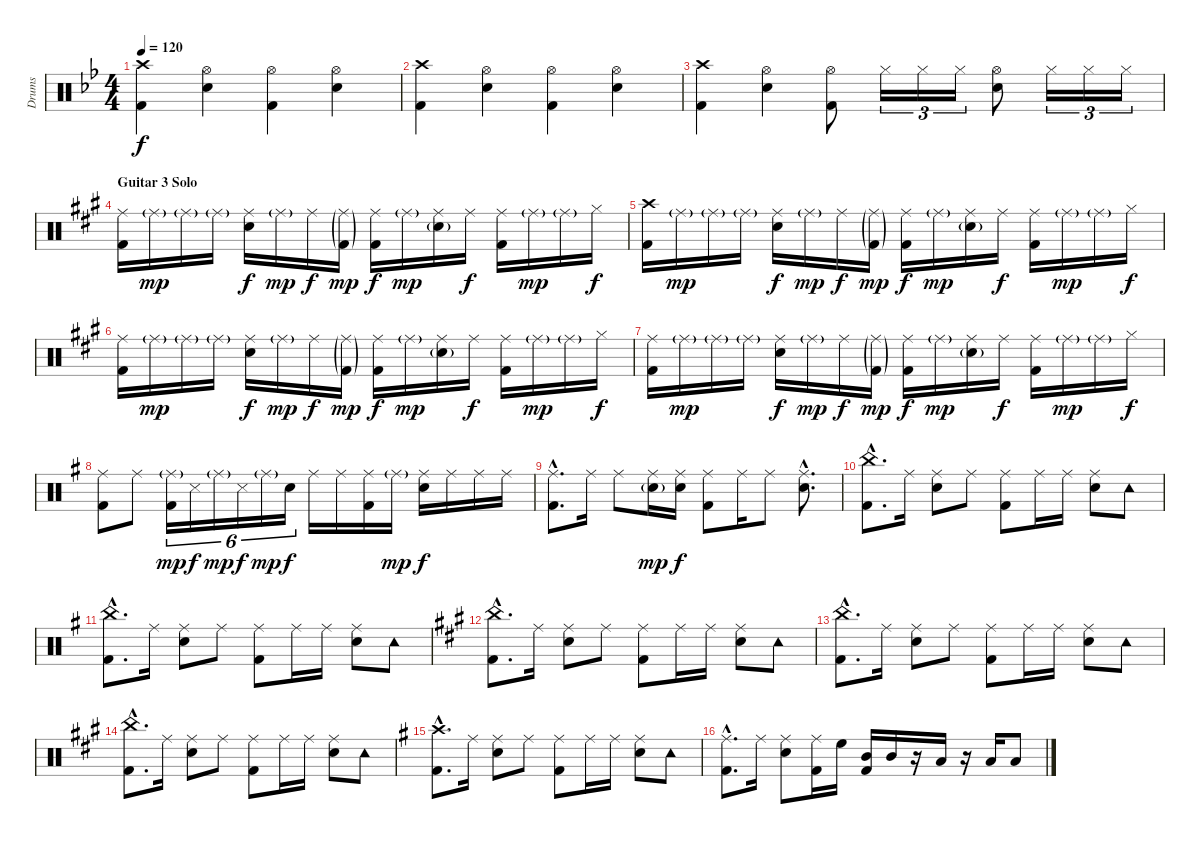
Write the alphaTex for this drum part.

\track ("Drums" "Drums") {instrument percussion}
\staff {score}
\articulation defaults
\ts (4 4)
\tempo 120
\clef neutral
\ks gminor
("Crash high (hit)" "Kick (hit) 2").4{dy f} ("Hi-Hat (open)" "Snare (hit) 2").4 ("Hi-Hat (open)" "Kick (hit) 2").4 ("Hi-Hat (open)" "Snare (hit) 2").4 |
("Crash high (hit)" "Kick (hit) 2").4 ("Hi-Hat (open)" "Snare (hit) 2").4 ("Hi-Hat (open)" "Kick (hit) 2").4 ("Hi-Hat (open)" "Snare (hit) 2").4 |
("Crash high (hit)" "Kick (hit) 2").4 ("Hi-Hat (open)" "Snare (hit) 2").4 ("Hi-Hat (open)" "Kick (hit) 2").8 "Hi-Hat (closed)".16{tu (3 2)} "Hi-Hat (closed)".16{tu (3 2)} "Hi-Hat (closed)".16{tu (3 2)} ("Hi-Hat (open)" "Snare (hit) 2").8 "Hi-Hat (closed)".16{tu (3 2)} "Hi-Hat (closed)".16{tu (3 2)} "Hi-Hat (closed)".16{tu (3 2)} |
\section ("" "Guitar 3 Solo")
\ks f#minor
("Ride (middle)" "Kick (hit) 2").16 "Ride (middle)"{g}.16{dy mp} "Ride (middle)"{g}.16 "Ride (middle)"{g}.16 ("Ride (middle)" "Snare (hit) 2").16{dy f} "Ride (middle)"{g}.16{dy mp} "Ride (middle)".16{dy f} ("Ride (middle)"{g} "Kick (hit) 2"{g}).16{dy mp} ("Ride (middle)" "Kick (hit) 2").16{dy f} "Ride (middle)"{g}.16{dy mp} ("Ride (middle)" "Snare (hit) 2"{g}).16 "Ride (middle)".16{dy f} ("Ride (middle)" "Kick (hit) 2").16 "Ride (middle)"{g}.16{dy mp} "Ride (middle)"{g}.16 "Hi-Hat (closed)".16{dy f} |
("Crash high (hit)" "Kick (hit) 2").16 "Ride (middle)"{g}.16{dy mp} "Ride (middle)"{g}.16 "Ride (middle)"{g}.16 ("Ride (middle)" "Snare (hit) 2").16{dy f} "Ride (middle)"{g}.16{dy mp} "Ride (middle)".16{dy f} ("Ride (middle)"{g} "Kick (hit) 2"{g}).16{dy mp} ("Ride (middle)" "Kick (hit) 2").16{dy f} "Ride (middle)"{g}.16{dy mp} ("Ride (middle)" "Snare (hit) 2"{g}).16 "Ride (middle)".16{dy f} ("Ride (middle)" "Kick (hit) 2").16 "Ride (middle)"{g}.16{dy mp} "Ride (middle)"{g}.16 "Hi-Hat (closed)".16{dy f} |
("Ride (middle)" "Kick (hit) 2").16 "Ride (middle)"{g}.16{dy mp} "Ride (middle)"{g}.16 "Ride (middle)"{g}.16 ("Ride (middle)" "Snare (hit) 2").16{dy f} "Ride (middle)"{g}.16{dy mp} "Ride (middle)".16{dy f} ("Ride (middle)"{g} "Kick (hit) 2"{g}).16{dy mp} ("Ride (middle)" "Kick (hit) 2").16{dy f} "Ride (middle)"{g}.16{dy mp} ("Ride (middle)" "Snare (hit) 2"{g}).16 "Ride (middle)".16{dy f} ("Ride (middle)" "Kick (hit) 2").16 "Ride (middle)"{g}.16{dy mp} "Ride (middle)"{g}.16 "Hi-Hat (closed)".16{dy f} |
("Ride (middle)" "Kick (hit) 2").16 "Ride (middle)"{g}.16{dy mp} "Ride (middle)"{g}.16 "Ride (middle)"{g}.16 ("Ride (middle)" "Snare (hit) 2").16{dy f} "Ride (middle)"{g}.16{dy mp} "Ride (middle)".16{dy f} ("Ride (middle)"{g} "Kick (hit) 2"{g}).16{dy mp} ("Ride (middle)" "Kick (hit) 2").16{dy f} "Ride (middle)"{g}.16{dy mp} ("Ride (middle)" "Snare (hit) 2"{g}).16 "Ride (middle)".16{dy f} ("Ride (middle)" "Kick (hit) 2").16 "Ride (middle)"{g}.16{dy mp} "Ride (middle)"{g}.16 "Hi-Hat (closed)".16{dy f} |
\ks eminor
("Ride (middle)" "Kick (hit) 2").8 "Ride (middle)".8 ("Ride (middle)"{g} "Kick (hit) 2").16{tu (6 4) dy mp} "Snare (side stick) 3".16{tu (6 4) dy f} "Ride (middle)"{g}.16{tu (6 4) dy mp} "Snare (side stick) 3".16{tu (6 4) dy f} "Ride (middle)"{g}.16{tu (6 4) dy mp} "Snare (hit) 2".16{tu (6 4) dy f} "Ride (middle)".16 "Ride (middle)".16 ("Ride (middle)" "Kick (hit) 2").16 "Ride (middle)"{g}.16{dy mp} ("Ride (middle)" "Snare (hit) 2").16{dy f} "Ride (middle)".16 "Ride (middle)".16 "Ride (middle)".16 |
("Ride (middle)"{hac} "Kick (hit) 2"{hac}).8{d} "Ride (middle)".16 "Ride (middle)".8 ("Ride (middle)" "Snare (hit) 2"{g}).16{dy mp} ("Ride (middle)" "Snare (hit) 2").16{dy f} ("Ride (middle)" "Kick (hit) 2").8 "Ride (middle)".16 "Ride (middle)".8 ("Ride (middle)"{hac} "Snare (hit) 2"{hac}).8{d} |
("China (hit)"{hac} "Kick (hit) 2"{hac}).8{d} "Ride (middle)".16 ("Ride (middle)" "Snare (hit) 2").8 "Ride (middle)".8 ("Ride (middle)" "Kick (hit) 2").8 "Ride (middle)".16 "Ride (middle)".16 ("Ride (middle)" "Snare (hit) 2").8 "Tambourine (hit)".8 |
("China (hit)"{hac} "Kick (hit) 2"{hac}).8{d} "Ride (middle)".16 ("Ride (middle)" "Snare (hit) 2").8 "Ride (middle)".8 ("Ride (middle)" "Kick (hit) 2").8 "Ride (middle)".16 "Ride (middle)".16 ("Ride (middle)" "Snare (hit) 2").8 "Tambourine (hit)".8 |
\ks f#minor
("China (hit)"{hac} "Kick (hit) 2"{hac}).8{d} "Ride (middle)".16 ("Ride (middle)" "Snare (hit) 2").8 "Ride (middle)".8 ("Ride (middle)" "Kick (hit) 2").8 "Ride (middle)".16 "Ride (middle)".16 ("Ride (middle)" "Snare (hit) 2").8 "Tambourine (hit)".8 |
("China (hit)"{hac} "Kick (hit) 2"{hac}).8{d} "Ride (middle)".16 ("Ride (middle)" "Snare (hit) 2").8 "Ride (middle)".8 ("Ride (middle)" "Kick (hit) 2").8 "Ride (middle)".16 "Ride (middle)".16 ("Ride (middle)" "Snare (hit) 2").8 "Tambourine (hit)".8 |
("China (hit)"{hac} "Kick (hit) 2"{hac}).8{d} "Ride (middle)".16 ("Ride (middle)" "Snare (hit) 2").8 "Ride (middle)".8 ("Ride (middle)" "Kick (hit) 2").8 "Ride (middle)".16 "Ride (middle)".16 ("Ride (middle)" "Snare (hit) 2").8 "Tambourine (hit)".8 |
\ks eminor
("Crash high (hit)"{hac} "Kick (hit) 2"{hac}).8{d} "Ride (middle)".16 ("Ride (middle)" "Snare (hit) 2").8 "Ride (middle)".8 ("Ride (middle)" "Kick (hit) 2").8 "Ride (middle)".16 "Ride (middle)".16 ("Ride (middle)" "Snare (hit) 2").8 "Tambourine (hit)".8 |
("Ride (middle)"{hac} "Kick (hit) 2"{hac}).8{d} "Ride (middle)".16 ("Ride (middle)" "Snare (hit) 2").8 ("Ride (middle)" "Kick (hit) 2").16 "High Floor Tom (hit)".16 ("Mid Tom (hit)" "Kick (hit) 2").16 "Mid Tom (hit)".16 r.16 "Low Tom (hit)".16 r.16 "Low Floor Tom (hit)".16 "Low Floor Tom (hit)".8
